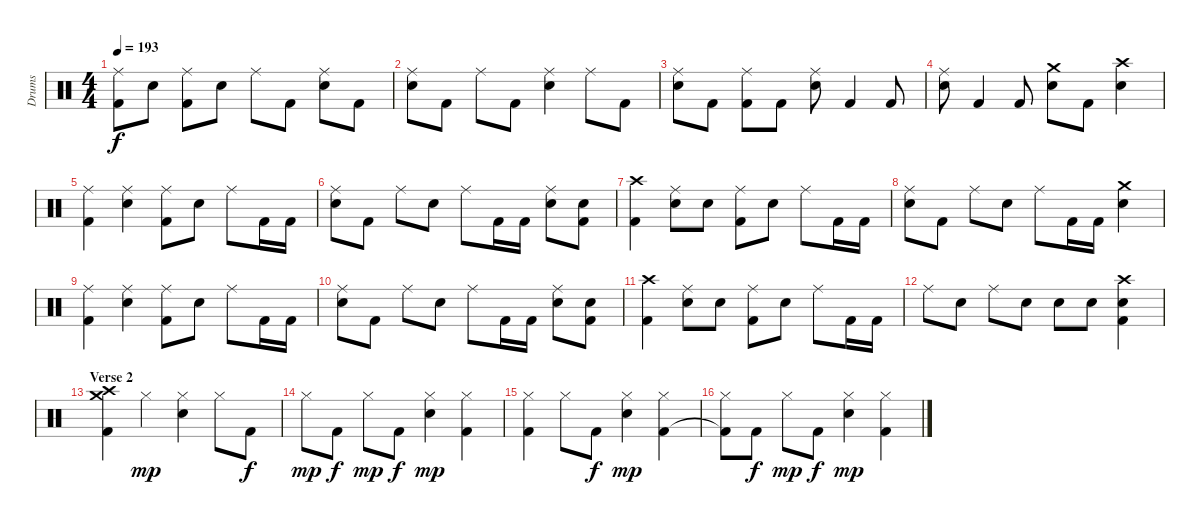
\track ("Drums" "Drums") {instrument percussion}
\staff {score}
\articulation defaults
\ts (4 4)
\tempo 193
\clef neutral
\ks c
("Ride (middle)" "Kick (hit) 2").8{dy f} "Snare (hit) 2".8 ("Ride (middle)" "Kick (hit) 2").8 "Snare (hit) 2".8 "Ride (middle)".8 "Kick (hit) 2".8 ("Ride (middle)" "Snare (hit) 2").8 "Kick (hit) 2".8 |
("Ride (middle)" "Snare (hit) 2").8 "Kick (hit) 2".8 "Ride (middle)".8 "Kick (hit) 2".8 ("Ride (middle)" "Snare (hit) 2").4 "Ride (middle)".8 "Kick (hit) 2".8 |
("Ride (middle)" "Snare (hit) 2").8 "Kick (hit) 2".8 ("Ride (middle)" "Kick (hit) 2").8 "Kick (hit) 2".8 ("Ride (middle)" "Snare (hit) 2").8 "Kick (hit) 2".4 "Kick (hit) 2".8 |
("Ride (middle)" "Snare (hit) 2").8 "Kick (hit) 2".4 "Kick (hit) 2".8 ("Crash medium (hit)" "Snare (hit) 2").8 "Kick (hit) 2".8 ("Crash high (hit)" "Snare (hit) 2").4 |
("Ride (middle)" "Kick (hit) 2").4 ("Ride (middle)" "Snare (hit) 2").4 ("Ride (middle)" "Kick (hit) 2").8 "Snare (hit) 2".8 "Ride (middle)".8 "Kick (hit) 2".16 "Kick (hit) 2".16 |
("Ride (middle)" "Snare (hit) 2").8 "Kick (hit) 2".8 "Ride (middle)".8 "Snare (hit) 2".8 "Ride (middle)".8 "Kick (hit) 2".16 "Kick (hit) 2".16 ("Ride (middle)" "Snare (hit) 2").8 ("Snare (hit) 2" "Kick (hit) 2").8 |
("Crash high (hit)" "Kick (hit) 2").4 ("Ride (middle)" "Snare (hit) 2").8 "Snare (hit) 2".8 ("Ride (middle)" "Kick (hit) 2").8 "Snare (hit) 2".8 "Ride (middle)".8 "Kick (hit) 2".16 "Kick (hit) 2".16 |
("Ride (middle)" "Snare (hit) 2").8 "Kick (hit) 2".8 "Ride (middle)".8 "Snare (hit) 2".8 "Ride (middle)".8 "Kick (hit) 2".16 "Kick (hit) 2".16 ("Crash medium (hit)" "Snare (hit) 2").4 |
("Ride (middle)" "Kick (hit) 2").4 ("Ride (middle)" "Snare (hit) 2").4 ("Ride (middle)" "Kick (hit) 2").8 "Snare (hit) 2".8 "Ride (middle)".8 "Kick (hit) 2".16 "Kick (hit) 2".16 |
("Ride (middle)" "Snare (hit) 2").8 "Kick (hit) 2".8 "Ride (middle)".8 "Snare (hit) 2".8 "Ride (middle)".8 "Kick (hit) 2".16 "Kick (hit) 2".16 ("Ride (middle)" "Snare (hit) 2").8 ("Snare (hit) 2" "Kick (hit) 2").8 |
("Crash high (hit)" "Kick (hit) 2").4 ("Ride (middle)" "Snare (hit) 2").8 "Snare (hit) 2".8 ("Ride (middle)" "Kick (hit) 2").8 "Snare (hit) 2".8 "Ride (middle)".8 "Kick (hit) 2".16 "Kick (hit) 2".16 |
"Ride (middle)".8 "Snare (hit) 2".8 "Ride (middle)".8 "Snare (hit) 2".8 "Snare (hit) 2".8 "Snare (hit) 2".8 ("Crash high (hit)" "Snare (hit) 2" "Kick (hit) 2").4 |
\section ("" "Verse 2")
("Crash medium (hit)" "Crash high (hit)" "Kick (hit) 2").4 "Hi-Hat (closed)".4{dy mp} ("Hi-Hat (closed)" "Snare (hit) 2").4 "Hi-Hat (closed)".8 "Kick (hit) 2".8{dy f} |
"Hi-Hat (closed)".8{dy mp} "Kick (hit) 2".8{dy f} "Hi-Hat (closed)".8{dy mp} "Kick (hit) 2".8{dy f} ("Hi-Hat (closed)" "Snare (hit) 2").4{dy mp} ("Hi-Hat (closed)" "Kick (hit) 2").4 |
("Hi-Hat (closed)" "Kick (hit) 2").4 "Hi-Hat (closed)".8 "Kick (hit) 2".8{dy f} ("Hi-Hat (closed)" "Snare (hit) 2").4{dy mp} ("Hi-Hat (closed)" "Kick (hit) 2").4 |
("Hi-Hat (closed)" "Kick (hit) 2"{t}).8 "Kick (hit) 2".8{dy f} "Hi-Hat (closed)".8{dy mp} "Kick (hit) 2".8{dy f} ("Hi-Hat (closed)" "Snare (hit) 2").4{dy mp} ("Hi-Hat (closed)" "Kick (hit) 2").4
